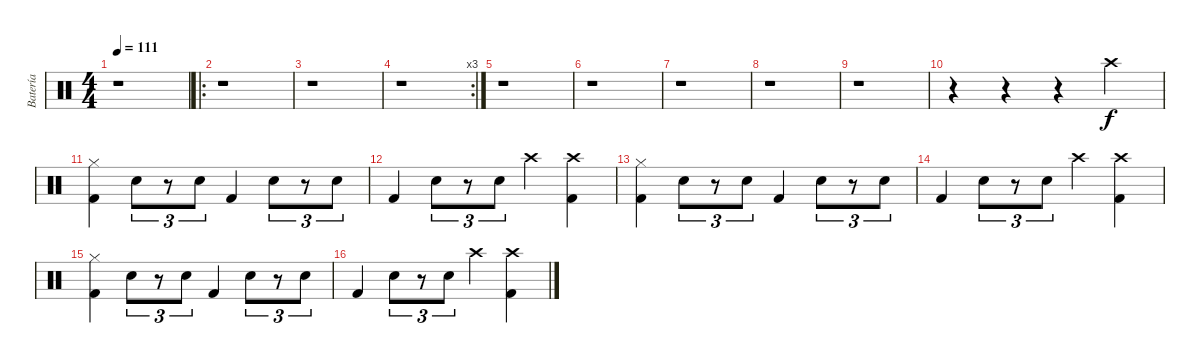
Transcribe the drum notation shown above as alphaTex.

\track ("Batería" "Batería") {instrument percussion}
\staff {score}
\articulation defaults
\ts (4 4)
\tempo 111
\clef neutral
\ks c
r.1{dy f} |
\ro
r.1 |
r.1 |
\rc 3
r.1 |
r.1 |
r.1 |
r.1 |
r.1 |
r.1 |
r.4 r.4 r.4 "Crash high (hit)".4 |
("Hi-Hat (closed)" "Kick (hit) 2").4 "Snare (hit) 2".8{tu (3 2)} r.8{tu (3 2)} "Snare (hit) 2".8{tu (3 2)} "Kick (hit) 2".4 "Snare (hit) 2".8{tu (3 2)} r.8{tu (3 2)} "Snare (hit) 2".8{tu (3 2)} |
"Kick (hit) 2".4 "Snare (hit) 2".8{tu (3 2)} r.8{tu (3 2)} "Snare (hit) 2".8{tu (3 2)} "Crash high (hit)".4 ("Crash high (hit)" "Kick (hit) 2").4 |
("Hi-Hat (closed)" "Kick (hit) 2").4 "Snare (hit) 2".8{tu (3 2)} r.8{tu (3 2)} "Snare (hit) 2".8{tu (3 2)} "Kick (hit) 2".4 "Snare (hit) 2".8{tu (3 2)} r.8{tu (3 2)} "Snare (hit) 2".8{tu (3 2)} |
"Kick (hit) 2".4 "Snare (hit) 2".8{tu (3 2)} r.8{tu (3 2)} "Snare (hit) 2".8{tu (3 2)} "Crash high (hit)".4 ("Crash high (hit)" "Kick (hit) 2").4 |
("Hi-Hat (closed)" "Kick (hit) 2").4 "Snare (hit) 2".8{tu (3 2)} r.8{tu (3 2)} "Snare (hit) 2".8{tu (3 2)} "Kick (hit) 2".4 "Snare (hit) 2".8{tu (3 2)} r.8{tu (3 2)} "Snare (hit) 2".8{tu (3 2)} |
"Kick (hit) 2".4 "Snare (hit) 2".8{tu (3 2)} r.8{tu (3 2)} "Snare (hit) 2".8{tu (3 2)} "Crash high (hit)".4 ("Crash high (hit)" "Kick (hit) 2").4
